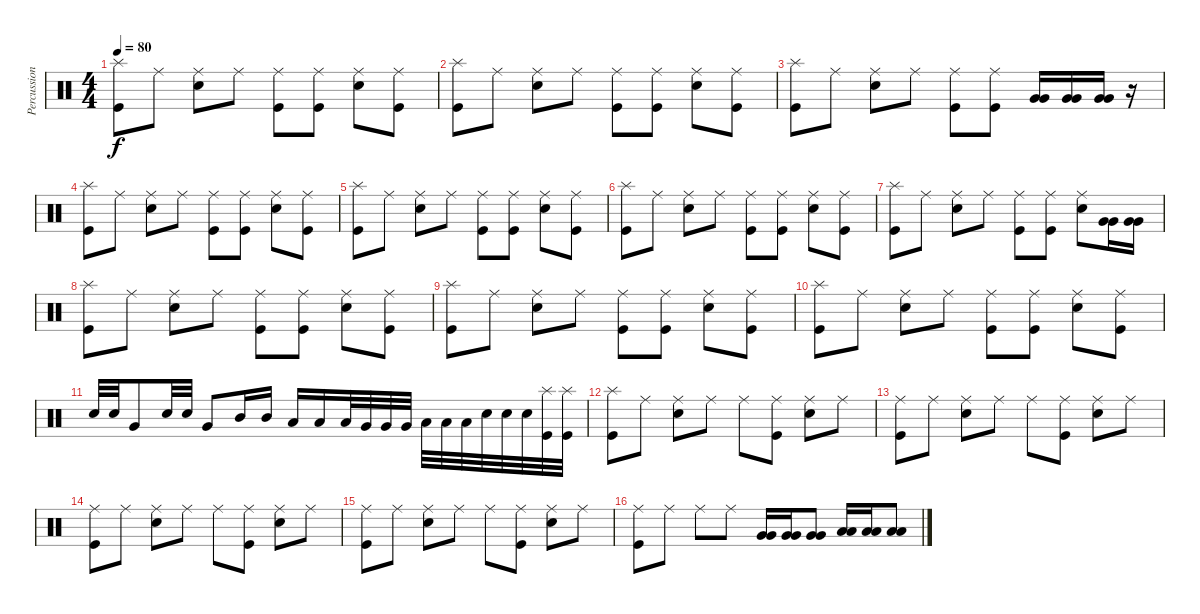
\track ("Percussions" "Percussion") {instrument percussion}
\staff {score}
\articulation defaults
\ts (4 4)
\tempo 80
\clef neutral
\ks c
("Splash (hit)" "Kick (hit)").8{dy f} "Ride (middle)".8 ("Ride (middle)" "Snare (hit) 2").8 "Ride (middle)".8 ("Ride (middle)" "Kick (hit)").8 ("Ride (middle)" "Kick (hit)").8 ("Ride (middle)" "Snare (hit) 2").8 ("Ride (middle)" "Kick (hit)").8 |
("Splash (hit)" "Kick (hit)").8 "Ride (middle)".8 ("Ride (middle)" "Snare (hit) 2").8 "Ride (middle)".8 ("Ride (middle)" "Kick (hit)").8 ("Ride (middle)" "Kick (hit)").8 ("Ride (middle)" "Snare (hit) 2").8 ("Ride (middle)" "Kick (hit)").8 |
("Splash (hit)" "Kick (hit)").8 "Ride (middle)".8 ("Ride (middle)" "Snare (hit) 2").8 "Ride (middle)".8 ("Ride (middle)" "Kick (hit)").8 ("Ride (middle)" "Kick (hit)").8 ("Very Low Tom (hit)" "Very Low Tom (hit)").16 ("Very Low Tom (hit)" "Very Low Tom (hit)").16 ("Very Low Tom (hit)" "Very Low Tom (hit)").16 r.16 |
("Splash (hit)" "Kick (hit)").8 "Ride (middle)".8 ("Ride (middle)" "Snare (hit) 2").8 "Ride (middle)".8 ("Ride (middle)" "Kick (hit)").8 ("Ride (middle)" "Kick (hit)").8 ("Ride (middle)" "Snare (hit) 2").8 ("Ride (middle)" "Kick (hit)").8 |
("Splash (hit)" "Kick (hit)").8 "Ride (middle)".8 ("Ride (middle)" "Snare (hit) 2").8 "Ride (middle)".8 ("Ride (middle)" "Kick (hit)").8 ("Ride (middle)" "Kick (hit)").8 ("Ride (middle)" "Snare (hit) 2").8 ("Ride (middle)" "Kick (hit)").8 |
("Splash (hit)" "Kick (hit)").8 "Ride (middle)".8 ("Ride (middle)" "Snare (hit) 2").8 "Ride (middle)".8 ("Ride (middle)" "Kick (hit)").8 ("Ride (middle)" "Kick (hit)").8 ("Ride (middle)" "Snare (hit) 2").8 ("Ride (middle)" "Kick (hit)").8 |
("Splash (hit)" "Kick (hit)").8 "Ride (middle)".8 ("Ride (middle)" "Snare (hit) 2").8 "Ride (middle)".8 ("Ride (middle)" "Kick (hit)").8 ("Ride (middle)" "Kick (hit)").8 ("Ride (middle)" "Snare (hit) 2").8 ("Very Low Tom (hit)" "Very Low Tom (hit)").16 ("Very Low Tom (hit)" "Very Low Tom (hit)").16 |
("Splash (hit)" "Kick (hit)").8 "Ride (middle)".8 ("Ride (middle)" "Snare (hit) 2").8 "Ride (middle)".8 ("Ride (middle)" "Kick (hit)").8 ("Ride (middle)" "Kick (hit)").8 ("Ride (middle)" "Snare (hit) 2").8 ("Ride (middle)" "Kick (hit)").8 |
("Splash (hit)" "Kick (hit)").8 "Ride (middle)".8 ("Ride (middle)" "Snare (hit) 2").8 "Ride (middle)".8 ("Ride (middle)" "Kick (hit)").8 ("Ride (middle)" "Kick (hit)").8 ("Ride (middle)" "Snare (hit) 2").8 ("Ride (middle)" "Kick (hit)").8 |
("Splash (hit)" "Kick (hit)").8 "Ride (middle)".8 ("Ride (middle)" "Snare (hit) 2").8 "Ride (middle)".8 ("Ride (middle)" "Kick (hit)").8 ("Ride (middle)" "Kick (hit)").8 ("Ride (middle)" "Snare (hit) 2").8 ("Ride (middle)" "Kick (hit)").8 |
"Snare (hit) 2".32 "Snare (hit) 2".32 "Very Low Tom (hit)".8 "Snare (hit) 2".32 "Snare (hit) 2".32 "Very Low Tom (hit)".8 "Mid Tom (hit)".16 "Mid Tom (hit)".16 "Low Tom (hit)".16 "Low Tom (hit)".16 "Low Tom (hit)".32 "Very Low Tom (hit)".32 "Very Low Tom (hit)".32 "Very Low Tom (hit)".32 "Low Floor Tom (hit)".32 "Low Floor Tom (hit)".32 "Low Floor Tom (hit)".32 "Snare (hit) 2".32 "Snare (hit) 2".32 "Snare (hit) 2".32 ("Splash (hit)" "Kick (hit)").32 ("Splash (hit)" "Kick (hit)").32 |
("Splash (hit)" "Kick (hit)").8 "Ride (middle)".8 ("Ride (middle)" "Snare (hit) 2").8 "Ride (middle)".8 "Ride (middle)".8 ("Ride (middle)" "Kick (hit)").8 ("Ride (middle)" "Snare (hit) 2").8 "Ride (middle)".8 |
("Ride (middle)" "Kick (hit)").8 "Ride (middle)".8 ("Ride (middle)" "Snare (hit) 2").8 "Ride (middle)".8 "Ride (middle)".8 ("Ride (middle)" "Kick (hit)").8 ("Ride (middle)" "Snare (hit) 2").8 "Ride (middle)".8 |
("Ride (middle)" "Kick (hit)").8 "Ride (middle)".8 ("Ride (middle)" "Snare (hit) 2").8 "Ride (middle)".8 "Ride (middle)".8 ("Ride (middle)" "Kick (hit)").8 ("Ride (middle)" "Snare (hit) 2").8 "Ride (middle)".8 |
("Ride (middle)" "Kick (hit)").8 "Ride (middle)".8 ("Ride (middle)" "Snare (hit) 2").8 "Ride (middle)".8 "Ride (middle)".8 ("Ride (middle)" "Kick (hit)").8 ("Ride (middle)" "Snare (hit) 2").8 "Ride (middle)".8 |
("Ride (middle)" "Kick (hit)").8 "Ride (middle)".8 "Ride (middle)".8 "Ride (middle)".8 ("Very Low Tom (hit)" "Very Low Tom (hit)").16 ("Very Low Tom (hit)" "Very Low Tom (hit)").16 ("Very Low Tom (hit)" "Very Low Tom (hit)").8 ("Low Floor Tom (hit)" "Low Floor Tom (hit)").16 ("Low Floor Tom (hit)" "Low Floor Tom (hit)").16 ("Low Floor Tom (hit)" "Low Floor Tom (hit)").8
